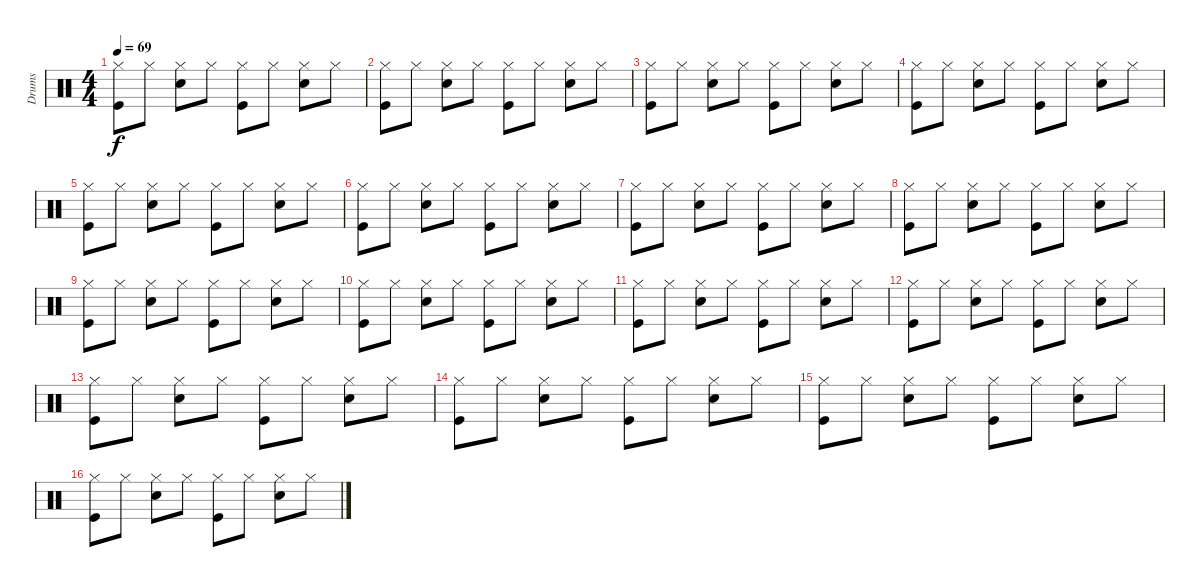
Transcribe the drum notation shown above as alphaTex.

\track ("Drums" "Drums") {instrument percussion}
\staff {score}
\articulation defaults
\ts (4 4)
\tempo 69
\clef neutral
\ks c
("Hi-Hat (closed)" "Kick (hit)").8{dy f} "Hi-Hat (closed)".8 ("Hi-Hat (closed)" "Snare (hit) 2").8 "Hi-Hat (closed)".8 ("Hi-Hat (closed)" "Kick (hit)").8 "Hi-Hat (closed)".8 ("Hi-Hat (closed)" "Snare (hit) 2").8 "Hi-Hat (closed)".8 |
("Hi-Hat (closed)" "Kick (hit)").8 "Hi-Hat (closed)".8 ("Hi-Hat (closed)" "Snare (hit) 2").8 "Hi-Hat (closed)".8 ("Hi-Hat (closed)" "Kick (hit)").8 "Hi-Hat (closed)".8 ("Hi-Hat (closed)" "Snare (hit) 2").8 "Hi-Hat (closed)".8 |
("Hi-Hat (closed)" "Kick (hit)").8 "Hi-Hat (closed)".8 ("Hi-Hat (closed)" "Snare (hit) 2").8 "Hi-Hat (closed)".8 ("Hi-Hat (closed)" "Kick (hit)").8 "Hi-Hat (closed)".8 ("Hi-Hat (closed)" "Snare (hit) 2").8 "Hi-Hat (closed)".8 |
("Hi-Hat (closed)" "Kick (hit)").8 "Hi-Hat (closed)".8 ("Hi-Hat (closed)" "Snare (hit) 2").8 "Hi-Hat (closed)".8 ("Hi-Hat (closed)" "Kick (hit)").8 "Hi-Hat (closed)".8 ("Hi-Hat (closed)" "Snare (hit) 2").8 "Hi-Hat (closed)".8 |
("Hi-Hat (closed)" "Kick (hit)").8 "Hi-Hat (closed)".8 ("Hi-Hat (closed)" "Snare (hit) 2").8 "Hi-Hat (closed)".8 ("Hi-Hat (closed)" "Kick (hit)").8 "Hi-Hat (closed)".8 ("Hi-Hat (closed)" "Snare (hit) 2").8 "Hi-Hat (closed)".8 |
("Hi-Hat (closed)" "Kick (hit)").8 "Hi-Hat (closed)".8 ("Hi-Hat (closed)" "Snare (hit) 2").8 "Hi-Hat (closed)".8 ("Hi-Hat (closed)" "Kick (hit)").8 "Hi-Hat (closed)".8 ("Hi-Hat (closed)" "Snare (hit) 2").8 "Hi-Hat (closed)".8 |
("Hi-Hat (closed)" "Kick (hit)").8 "Hi-Hat (closed)".8 ("Hi-Hat (closed)" "Snare (hit) 2").8 "Hi-Hat (closed)".8 ("Hi-Hat (closed)" "Kick (hit)").8 "Hi-Hat (closed)".8 ("Hi-Hat (closed)" "Snare (hit) 2").8 "Hi-Hat (closed)".8 |
("Hi-Hat (closed)" "Kick (hit)").8 "Hi-Hat (closed)".8 ("Hi-Hat (closed)" "Snare (hit) 2").8 "Hi-Hat (closed)".8 ("Hi-Hat (closed)" "Kick (hit)").8 "Hi-Hat (closed)".8 ("Hi-Hat (closed)" "Snare (hit) 2").8 "Hi-Hat (closed)".8 |
("Hi-Hat (closed)" "Kick (hit)").8 "Hi-Hat (closed)".8 ("Hi-Hat (closed)" "Snare (hit) 2").8 "Hi-Hat (closed)".8 ("Hi-Hat (closed)" "Kick (hit)").8 "Hi-Hat (closed)".8 ("Hi-Hat (closed)" "Snare (hit) 2").8 "Hi-Hat (closed)".8 |
("Hi-Hat (closed)" "Kick (hit)").8 "Hi-Hat (closed)".8 ("Hi-Hat (closed)" "Snare (hit) 2").8 "Hi-Hat (closed)".8 ("Hi-Hat (closed)" "Kick (hit)").8 "Hi-Hat (closed)".8 ("Hi-Hat (closed)" "Snare (hit) 2").8 "Hi-Hat (closed)".8 |
("Hi-Hat (closed)" "Kick (hit)").8 "Hi-Hat (closed)".8 ("Hi-Hat (closed)" "Snare (hit) 2").8 "Hi-Hat (closed)".8 ("Hi-Hat (closed)" "Kick (hit)").8 "Hi-Hat (closed)".8 ("Hi-Hat (closed)" "Snare (hit) 2").8 "Hi-Hat (closed)".8 |
("Hi-Hat (closed)" "Kick (hit)").8 "Hi-Hat (closed)".8 ("Hi-Hat (closed)" "Snare (hit) 2").8 "Hi-Hat (closed)".8 ("Hi-Hat (closed)" "Kick (hit)").8 "Hi-Hat (closed)".8 ("Hi-Hat (closed)" "Snare (hit) 2").8 "Hi-Hat (closed)".8 |
("Hi-Hat (closed)" "Kick (hit)").8 "Hi-Hat (closed)".8 ("Hi-Hat (closed)" "Snare (hit) 2").8 "Hi-Hat (closed)".8 ("Hi-Hat (closed)" "Kick (hit)").8 "Hi-Hat (closed)".8 ("Hi-Hat (closed)" "Snare (hit) 2").8 "Hi-Hat (closed)".8 |
("Hi-Hat (closed)" "Kick (hit)").8 "Hi-Hat (closed)".8 ("Hi-Hat (closed)" "Snare (hit) 2").8 "Hi-Hat (closed)".8 ("Hi-Hat (closed)" "Kick (hit)").8 "Hi-Hat (closed)".8 ("Hi-Hat (closed)" "Snare (hit) 2").8 "Hi-Hat (closed)".8 |
("Hi-Hat (closed)" "Kick (hit)").8 "Hi-Hat (closed)".8 ("Hi-Hat (closed)" "Snare (hit) 2").8 "Hi-Hat (closed)".8 ("Hi-Hat (closed)" "Kick (hit)").8 "Hi-Hat (closed)".8 ("Hi-Hat (closed)" "Snare (hit) 2").8 "Hi-Hat (closed)".8 |
("Hi-Hat (closed)" "Kick (hit)").8 "Hi-Hat (closed)".8 ("Hi-Hat (closed)" "Snare (hit) 2").8 "Hi-Hat (closed)".8 ("Hi-Hat (closed)" "Kick (hit)").8 "Hi-Hat (closed)".8 ("Hi-Hat (closed)" "Snare (hit) 2").8 "Hi-Hat (closed)".8
